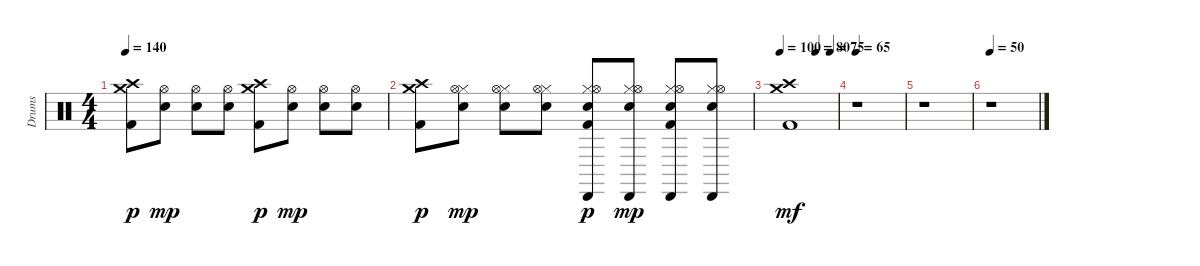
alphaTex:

\track ("Drums" "Drums") {instrument percussion}
\staff {score}
\articulation defaults
\ts (4 4)
\tempo 140
\clef neutral
\ks c
("Kick (hit) 2" "Crash high (hit)" "Crash medium (hit)").8{dy p} ("Snare (hit) 2" "Hi-Hat (open)").8{dy mp} ("Snare (hit) 2" "Hi-Hat (open)").8 ("Snare (hit) 2" "Hi-Hat (open)").8 ("Kick (hit) 2" "Crash high (hit)" "Crash medium (hit)").8{dy p} ("Snare (hit) 2" "Hi-Hat (open)").8{dy mp} ("Snare (hit) 2" "Hi-Hat (open)").8 ("Snare (hit) 2" "Hi-Hat (open)").8 |
("Kick (hit) 2" "Crash high (hit)" "Crash medium (hit)").8{dy p} ("Snare (hit) 2" "Hi-Hat (closed)" "Hi-Hat (open)").8{dy mp} ("Snare (hit) 2" "Hi-Hat (closed)" "Hi-Hat (open)").8 ("Snare (hit) 2" "Hi-Hat (closed)" "Hi-Hat (open)").8 ("Kick (hit) 2" "Hi-Hat (closed)" "Hi-Hat (open)" "Snare (hit) 2" "Cabasa (hit)").8{dy p} ("Hi-Hat (closed)" "Hi-Hat (open)" "Snare (hit) 2" "Cabasa (hit)").8{dy mp} ("Kick (hit) 2" "Hi-Hat (closed)" "Hi-Hat (open)" "Snare (hit) 2" "Cabasa (hit)").8 ("Hi-Hat (closed)" "Hi-Hat (open)" "Snare (hit) 2" "Cabasa (hit)").8 |
\tempo 100
\tempo (80 0.625)
\tempo (75 0.875)
("Kick (hit) 2" "Crash high (hit)" "Crash medium (hit)").1{dy mf} |
\tempo 65
r.1 |
r.1 |
\tempo 50
r.1
